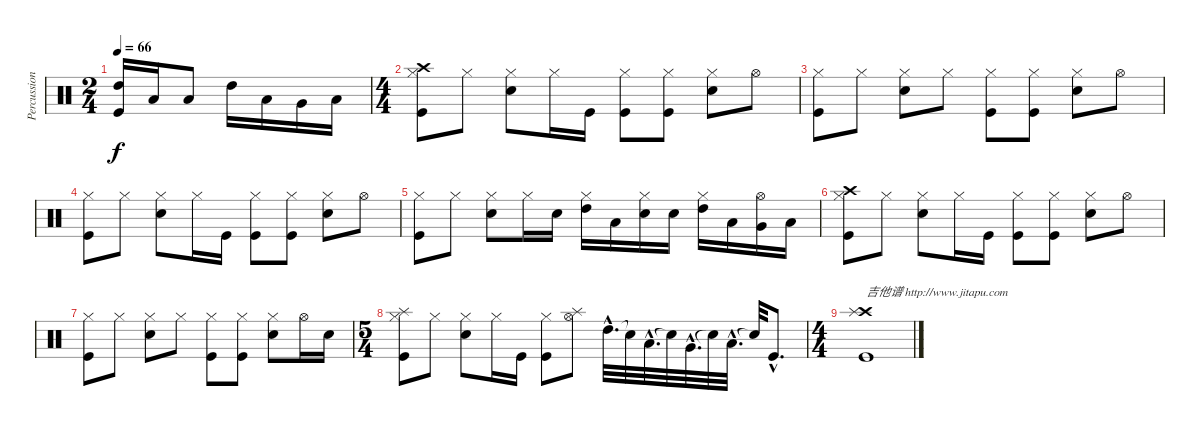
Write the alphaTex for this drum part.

\track ("Percussion" "Percussion") {instrument percussion}
\staff {score}
\articulation defaults
\ts (2 4)
\tempo 66
\clef neutral
\ks c
("High Tom (hit)" "Kick (hit)").16{dy f} "Low Tom (hit)".16 "Low Floor Tom (hit)".8 "High Tom (hit)".16 "Low Tom (hit)".16 "Very Low Tom (hit)".16 "Low Floor Tom (hit)".16 |
\ts (4 4)
("Hi-Hat (closed)" "Kick (hit)" "Crash high (hit)").8 "Hi-Hat (closed)".8 ("Hi-Hat (closed)" "Electric Snare (hit)").8 "Hi-Hat (closed)".16 "Kick (hit)".16 ("Hi-Hat (closed)" "Kick (hit)").8 ("Hi-Hat (closed)" "Kick (hit)").8 ("Hi-Hat (closed)" "Electric Snare (hit)").8 "Hi-Hat (open)".8 |
("Hi-Hat (closed)" "Kick (hit)").8 "Hi-Hat (closed)".8 ("Hi-Hat (closed)" "Electric Snare (hit)").8 "Hi-Hat (closed)".8 ("Hi-Hat (closed)" "Kick (hit)").8 ("Hi-Hat (closed)" "Kick (hit)").8 ("Hi-Hat (closed)" "Electric Snare (hit)").8 "Hi-Hat (open)".8 |
("Hi-Hat (closed)" "Kick (hit)").8 "Hi-Hat (closed)".8 ("Hi-Hat (closed)" "Electric Snare (hit)").8 "Hi-Hat (closed)".16 "Kick (hit)".16 ("Hi-Hat (closed)" "Kick (hit)").8 ("Hi-Hat (closed)" "Kick (hit)").8 ("Hi-Hat (closed)" "Electric Snare (hit)").8 "Hi-Hat (open)".8 |
("Hi-Hat (closed)" "Kick (hit)").8 "Hi-Hat (closed)".8 ("Hi-Hat (closed)" "Electric Snare (hit)").8 "Hi-Hat (closed)".16 "Electric Snare (hit)".16 ("Hi-Hat (closed)" "High Tom (hit)").16 "Low Floor Tom (hit)".16 ("Hi-Hat (closed)" "Snare (hit) 2").16 "Electric Snare (hit)".16 ("Hi-Hat (closed)" "High Tom (hit)").16 "Low Tom (hit)".16 ("Hi-Hat (open)" "Very Low Tom (hit)").16 "Low Floor Tom (hit)".16 |
("Hi-Hat (closed)" "Kick (hit)" "Crash high (hit)").8 "Hi-Hat (closed)".8 ("Hi-Hat (closed)" "Electric Snare (hit)").8 "Hi-Hat (closed)".16 "Kick (hit)".16 ("Hi-Hat (closed)" "Kick (hit)").8 ("Hi-Hat (closed)" "Kick (hit)").8 ("Hi-Hat (closed)" "Electric Snare (hit)").8 "Hi-Hat (open)".8 |
("Hi-Hat (closed)" "Kick (hit)").8 "Hi-Hat (closed)".8 ("Hi-Hat (closed)" "Electric Snare (hit)").8 "Hi-Hat (closed)".8 ("Hi-Hat (closed)" "Kick (hit)").8 ("Hi-Hat (closed)" "Kick (hit)").8 ("Hi-Hat (closed)" "Electric Snare (hit)").8 "Hi-Hat (open)".16 "Electric Snare (hit)".16 |
\ts (5 4)
("Hi-Hat (closed)" "Kick (hit)" "Splash (hit)").8 "Hi-Hat (closed)".8 ("Hi-Hat (closed)" "Electric Snare (hit)").8 "Hi-Hat (closed)".16 "Kick (hit)".16 ("Hi-Hat (closed)" "Kick (hit)").8 ("Hi-Hat (open)" "Splash (hit)").8 "High Tom (hit)"{hac}.32{d} "Snare (hit)"{t}.32 "Low Tom (hit)"{hac}.32{d} "Snare (hit)"{t}.32 "Very Low Tom (hit)"{hac}.32{d} "Snare (hit)"{t}.32 "Low Floor Tom (hit)"{hac}.32{d} "Snare (hit)"{t}.32 "Kick (hit)"{hac}.8{d} |
\ts (4 4)
("Kick (hit)" "Crash high (hit)" "Splash (hit)").1{txt "吉他谱 http://www.jitapu.com"}
